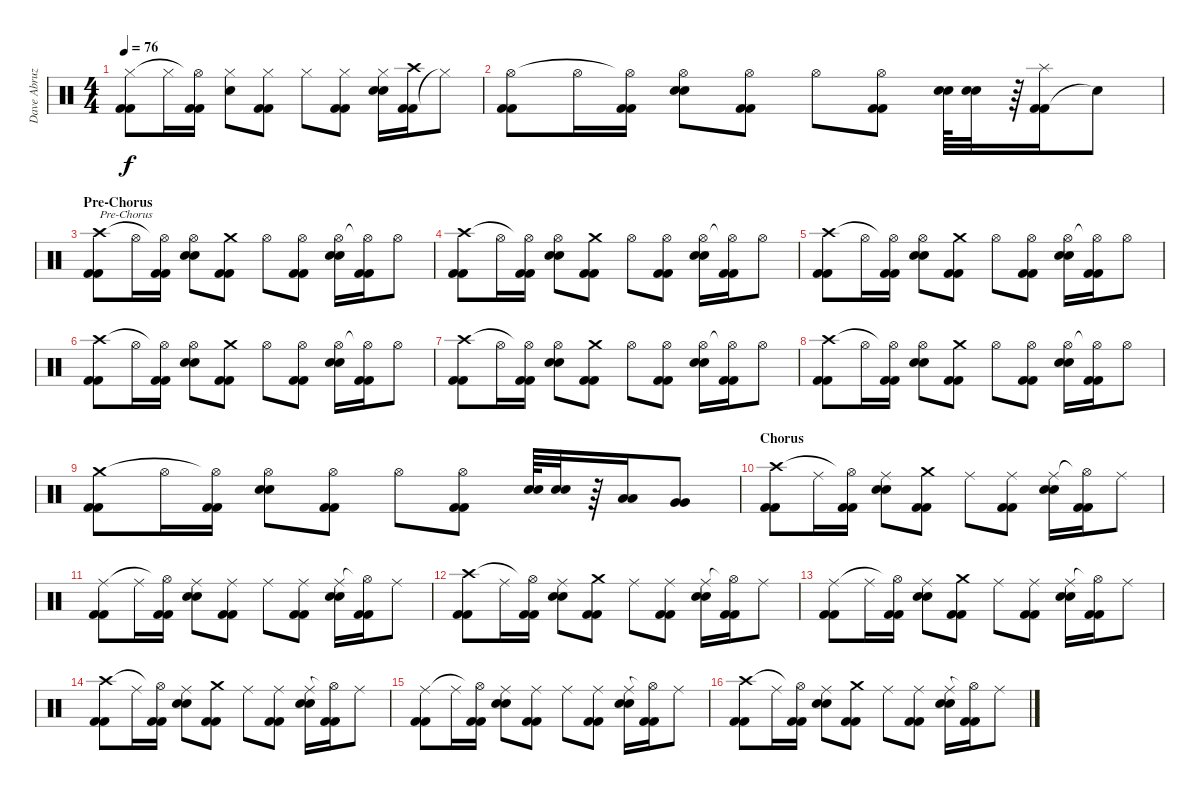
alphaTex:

\track ("Dave Abruzzese" "Dave Abruz") {instrument percussion}
\staff {score}
\articulation defaults
\ts (4 4)
\tempo 76
\clef neutral
\ks c
("Kick (hit) 2" "Kick (hit) 2" "Hi-Hat (closed)").8{dy f} "Hi-Hat (closed)".16 ("Kick (hit) 2" "Kick (hit) 2" "Hi-Hat (open)"{t}).16 ("Electric Snare (hit)" "Hi-Hat (closed)").8 ("Kick (hit) 2" "Kick (hit) 2" "Hi-Hat (closed)").8 "Hi-Hat (closed)".8 ("Kick (hit) 2" "Kick (hit) 2" "Hi-Hat (closed)").8 ("Electric Snare (hit)" "Electric Snare (hit)" "Hi-Hat (closed)").16 ("Kick (hit) 2" "Kick (hit) 2" "Crash high (hit)").16 "Hi-Hat (closed)"{t}.8 |
("Kick (hit) 2" "Kick (hit) 2" "Hi-Hat (open)").8 "Hi-Hat (open)".16 ("Kick (hit) 2" "Kick (hit) 2" "Hi-Hat (open)"{t}).16 ("Electric Snare (hit)" "Electric Snare (hit)" "Hi-Hat (open)").8 ("Kick (hit) 2" "Kick (hit) 2" "Hi-Hat (open)").8 "Hi-Hat (open)".8 ("Kick (hit) 2" "Kick (hit) 2" "Hi-Hat (open)").8 ("Electric Snare (hit)" "Electric Snare (hit)").64 ("Electric Snare (hit)" "Electric Snare (hit)").32 r.64 ("Kick (hit) 2" "Kick (hit) 2" "Splash (hit)").16 "Snare (hit)"{t}.8 |
\section ("" "Pre-Chorus")
("Kick (hit) 2" "Kick (hit) 2" "Crash high (hit)").8{txt "Pre-Chorus"} "Hi-Hat (open)".16 ("Kick (hit) 2" "Kick (hit) 2" "Hi-Hat (open)"{t}).16 ("Electric Snare (hit)" "Electric Snare (hit)" "Hi-Hat (open)").8 ("Kick (hit) 2" "Kick (hit) 2" "Crash medium (hit)").8 "Hi-Hat (open)".8 ("Kick (hit) 2" "Kick (hit) 2" "Hi-Hat (open)").8 ("Electric Snare (hit)" "Electric Snare (hit)" "Hi-Hat (open)").16 ("Kick (hit) 2" "Kick (hit) 2" "Hi-Hat (open)"{t}).16 "Hi-Hat (open)".8 |
("Kick (hit) 2" "Kick (hit) 2" "Crash high (hit)").8 "Hi-Hat (open)".16 ("Kick (hit) 2" "Kick (hit) 2" "Hi-Hat (open)"{t}).16 ("Electric Snare (hit)" "Electric Snare (hit)" "Hi-Hat (open)").8 ("Kick (hit) 2" "Kick (hit) 2" "Crash medium (hit)").8 "Hi-Hat (open)".8 ("Kick (hit) 2" "Kick (hit) 2" "Hi-Hat (open)").8 ("Electric Snare (hit)" "Electric Snare (hit)" "Hi-Hat (open)").16 ("Kick (hit) 2" "Kick (hit) 2" "Hi-Hat (open)"{t}).16 "Hi-Hat (open)".8 |
("Kick (hit) 2" "Kick (hit) 2" "Crash high (hit)").8 "Hi-Hat (open)".16 ("Kick (hit) 2" "Kick (hit) 2" "Hi-Hat (open)"{t}).16 ("Electric Snare (hit)" "Electric Snare (hit)" "Hi-Hat (open)").8 ("Kick (hit) 2" "Kick (hit) 2" "Crash medium (hit)").8 "Hi-Hat (open)".8 ("Kick (hit) 2" "Kick (hit) 2" "Hi-Hat (open)").8 ("Electric Snare (hit)" "Electric Snare (hit)" "Hi-Hat (open)").16 ("Kick (hit) 2" "Kick (hit) 2" "Hi-Hat (open)"{t}).16 "Hi-Hat (open)".8 |
("Kick (hit) 2" "Kick (hit) 2" "Crash high (hit)").8 "Hi-Hat (open)".16 ("Kick (hit) 2" "Kick (hit) 2" "Hi-Hat (open)"{t}).16 ("Electric Snare (hit)" "Electric Snare (hit)" "Hi-Hat (open)").8 ("Kick (hit) 2" "Kick (hit) 2" "Crash medium (hit)").8 "Hi-Hat (open)".8 ("Kick (hit) 2" "Kick (hit) 2" "Hi-Hat (open)").8 ("Electric Snare (hit)" "Electric Snare (hit)" "Hi-Hat (open)").16 ("Kick (hit) 2" "Kick (hit) 2" "Hi-Hat (open)"{t}).16 "Hi-Hat (open)".8 |
("Kick (hit) 2" "Kick (hit) 2" "Crash high (hit)").8 "Hi-Hat (open)".16 ("Kick (hit) 2" "Kick (hit) 2" "Hi-Hat (open)"{t}).16 ("Electric Snare (hit)" "Electric Snare (hit)" "Hi-Hat (open)").8 ("Kick (hit) 2" "Kick (hit) 2" "Crash medium (hit)").8 "Hi-Hat (open)".8 ("Kick (hit) 2" "Kick (hit) 2" "Hi-Hat (open)").8 ("Electric Snare (hit)" "Electric Snare (hit)" "Hi-Hat (open)").16 ("Kick (hit) 2" "Kick (hit) 2" "Hi-Hat (open)"{t}).16 "Hi-Hat (open)".8 |
("Kick (hit) 2" "Kick (hit) 2" "Crash high (hit)").8 "Hi-Hat (open)".16 ("Kick (hit) 2" "Kick (hit) 2" "Hi-Hat (open)"{t}).16 ("Electric Snare (hit)" "Electric Snare (hit)" "Hi-Hat (open)").8 ("Kick (hit) 2" "Kick (hit) 2" "Crash medium (hit)").8 "Hi-Hat (open)".8 ("Kick (hit) 2" "Kick (hit) 2" "Hi-Hat (open)").8 ("Electric Snare (hit)" "Electric Snare (hit)" "Hi-Hat (open)").16 ("Kick (hit) 2" "Kick (hit) 2" "Hi-Hat (open)"{t}).16 "Hi-Hat (open)".8 |
("Kick (hit) 2" "Kick (hit) 2" "Crash medium (hit)").8 "Hi-Hat (open)".16 ("Kick (hit) 2" "Kick (hit) 2" "Hi-Hat (open)"{t}).16 ("Electric Snare (hit)" "Electric Snare (hit)" "Hi-Hat (open)").8 ("Kick (hit) 2" "Kick (hit) 2" "Hi-Hat (open)").8 "Hi-Hat (open)".8 ("Kick (hit) 2" "Kick (hit) 2" "Hi-Hat (open)").8 ("Electric Snare (hit)" "Electric Snare (hit)").64 ("Electric Snare (hit)" "Electric Snare (hit)").32 r.64 ("Low Tom (hit)" "Low Tom (hit)").16 ("Very Low Tom (hit)" "Very Low Tom (hit)").8 |
\section ("" "Chorus")
("Kick (hit) 2" "Kick (hit) 2" "Crash high (hit)").8 "Ride (middle)".16 ("Kick (hit) 2" "Kick (hit) 2" "Hi-Hat (open)"{t}).16 ("Electric Snare (hit)" "Electric Snare (hit)" "Ride (middle)").8 ("Kick (hit) 2" "Kick (hit) 2" "Crash medium (hit)").8 "Ride (middle)".8 ("Kick (hit) 2" "Kick (hit) 2" "Ride (middle)").8 ("Electric Snare (hit)" "Electric Snare (hit)" "Ride (middle)").16 ("Kick (hit) 2" "Kick (hit) 2" "Hi-Hat (open)"{t}).16 "Ride (middle)".8 |
("Kick (hit) 2" "Kick (hit) 2" "Ride (middle)").8 "Ride (middle)".16 ("Kick (hit) 2" "Kick (hit) 2" "Hi-Hat (open)"{t}).16 ("Electric Snare (hit)" "Electric Snare (hit)" "Ride (middle)").8 ("Kick (hit) 2" "Kick (hit) 2" "Ride (middle)").8 "Ride (middle)".8 ("Kick (hit) 2" "Kick (hit) 2" "Ride (middle)").8 ("Electric Snare (hit)" "Electric Snare (hit)" "Ride (middle)").16 ("Kick (hit) 2" "Kick (hit) 2" "Hi-Hat (open)"{t}).16 "Ride (middle)".8 |
("Kick (hit) 2" "Kick (hit) 2" "Crash high (hit)").8 "Ride (middle)".16 ("Kick (hit) 2" "Kick (hit) 2" "Hi-Hat (open)"{t}).16 ("Electric Snare (hit)" "Electric Snare (hit)" "Ride (middle)").8 ("Kick (hit) 2" "Kick (hit) 2" "Crash medium (hit)").8 "Ride (middle)".8 ("Kick (hit) 2" "Kick (hit) 2" "Ride (middle)").8 ("Electric Snare (hit)" "Electric Snare (hit)" "Ride (middle)").16 ("Kick (hit) 2" "Kick (hit) 2" "Hi-Hat (open)"{t}).16 "Ride (middle)".8 |
("Kick (hit) 2" "Kick (hit) 2" "Ride (middle)").8 "Ride (middle)".16 ("Kick (hit) 2" "Kick (hit) 2" "Hi-Hat (open)"{t}).16 ("Electric Snare (hit)" "Electric Snare (hit)" "Ride (middle)").8 ("Kick (hit) 2" "Kick (hit) 2" "Crash medium (hit)").8 "Ride (middle)".8 ("Kick (hit) 2" "Kick (hit) 2" "Ride (middle)").8 ("Electric Snare (hit)" "Electric Snare (hit)" "Ride (middle)").16 ("Kick (hit) 2" "Kick (hit) 2" "Hi-Hat (open)"{t}).16 "Ride (middle)".8 |
("Kick (hit) 2" "Kick (hit) 2" "Crash high (hit)").8 "Ride (middle)".16 ("Kick (hit) 2" "Kick (hit) 2" "Hi-Hat (open)"{t}).16 ("Electric Snare (hit)" "Electric Snare (hit)" "Ride (middle)").8 ("Kick (hit) 2" "Kick (hit) 2" "Crash medium (hit)").8 "Ride (middle)".8 ("Kick (hit) 2" "Kick (hit) 2" "Ride (middle)").8 ("Electric Snare (hit)" "Electric Snare (hit)" "Ride (middle)").16 ("Kick (hit) 2" "Kick (hit) 2" "Hi-Hat (open)"{t}).16 "Ride (middle)".8 |
("Kick (hit) 2" "Kick (hit) 2" "Ride (middle)").8 "Ride (middle)".16 ("Kick (hit) 2" "Kick (hit) 2" "Hi-Hat (open)"{t}).16 ("Electric Snare (hit)" "Electric Snare (hit)" "Ride (middle)").8 ("Kick (hit) 2" "Kick (hit) 2" "Ride (middle)").8 "Ride (middle)".8 ("Kick (hit) 2" "Kick (hit) 2" "Ride (middle)").8 ("Electric Snare (hit)" "Electric Snare (hit)" "Ride (middle)").16 ("Kick (hit) 2" "Kick (hit) 2" "Hi-Hat (open)"{t}).16 "Ride (middle)".8 |
("Kick (hit) 2" "Kick (hit) 2" "Crash high (hit)").8 "Ride (middle)".16 ("Kick (hit) 2" "Kick (hit) 2" "Hi-Hat (open)"{t}).16 ("Electric Snare (hit)" "Electric Snare (hit)" "Ride (middle)").8 ("Kick (hit) 2" "Kick (hit) 2" "Crash medium (hit)").8 "Ride (middle)".8 ("Kick (hit) 2" "Kick (hit) 2" "Ride (middle)").8 ("Electric Snare (hit)" "Electric Snare (hit)" "Ride (middle)").16 ("Kick (hit) 2" "Kick (hit) 2" "Hi-Hat (open)"{t}).16 "Ride (middle)".8
